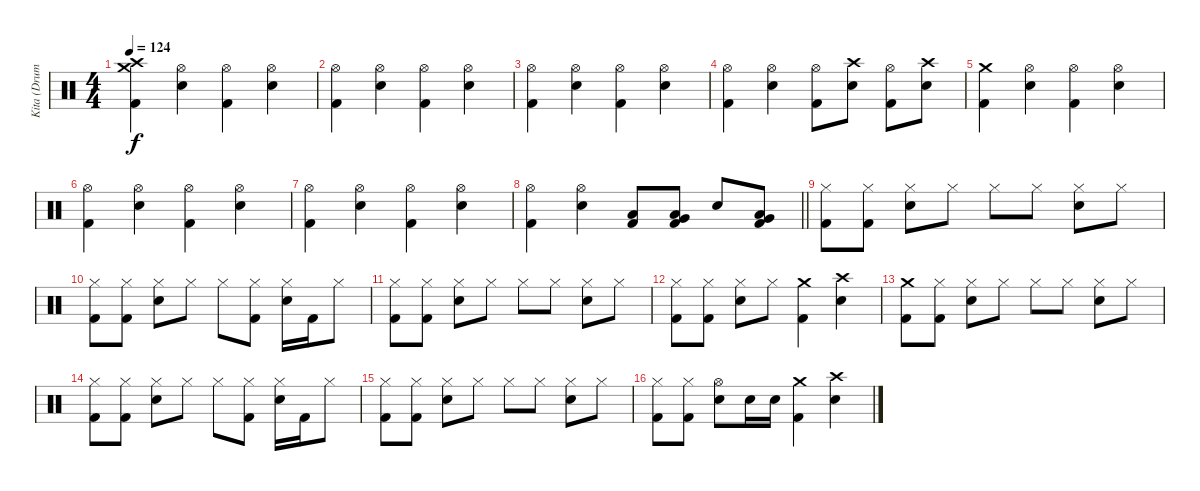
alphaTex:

\track ("Kita (Drums)" "Kita (Drum") {instrument percussion}
\staff {score}
\articulation defaults
\ts (4 4)
\tempo 124
\clef neutral
\ks c
("Crash medium (hit)" "Crash high (hit)" "Kick (hit) 2").4{dy f} ("Hi-Hat (open)" "Electric Snare (hit)").4 ("Hi-Hat (open)" "Kick (hit) 2").4 ("Hi-Hat (open)" "Electric Snare (hit)").4 |
("Hi-Hat (open)" "Kick (hit) 2").4 ("Hi-Hat (open)" "Electric Snare (hit)").4 ("Hi-Hat (open)" "Kick (hit) 2").4 ("Hi-Hat (open)" "Electric Snare (hit)").4 |
("Hi-Hat (open)" "Kick (hit) 2").4 ("Hi-Hat (open)" "Electric Snare (hit)").4 ("Hi-Hat (open)" "Kick (hit) 2").4 ("Hi-Hat (open)" "Electric Snare (hit)").4 |
("Hi-Hat (open)" "Kick (hit) 2").4 ("Hi-Hat (open)" "Electric Snare (hit)").4 ("Hi-Hat (open)" "Kick (hit) 2").8 ("Crash high (hit)" "Electric Snare (hit)").8 ("Hi-Hat (open)" "Kick (hit) 2").8 ("Crash high (hit)" "Electric Snare (hit)").8 |
("Crash medium (hit)" "Kick (hit) 2").4 ("Hi-Hat (open)" "Electric Snare (hit)").4 ("Hi-Hat (open)" "Kick (hit) 2").4 ("Hi-Hat (open)" "Electric Snare (hit)").4 |
("Hi-Hat (open)" "Kick (hit) 2").4 ("Hi-Hat (open)" "Electric Snare (hit)").4 ("Hi-Hat (open)" "Kick (hit) 2").4 ("Hi-Hat (open)" "Electric Snare (hit)").4 |
("Hi-Hat (open)" "Kick (hit) 2").4 ("Hi-Hat (open)" "Electric Snare (hit)").4 ("Hi-Hat (open)" "Kick (hit) 2").4 ("Hi-Hat (open)" "Electric Snare (hit)").4 |
\barLineRight lightlight
("Hi-Hat (open)" "Kick (hit) 2").4 ("Hi-Hat (open)" "Electric Snare (hit)").4 ("Low Floor Tom (hit)" "Kick (hit) 2").8 ("Low Floor Tom (hit)" "Very Low Tom (hit)" "Kick (hit) 2").8 "Electric Snare (hit)".8 ("Low Floor Tom (hit)" "Very Low Tom (hit)" "Kick (hit) 2").8 |
("Hi-Hat (closed)" "Kick (hit) 2").8 ("Hi-Hat (closed)" "Kick (hit) 2").8 ("Hi-Hat (closed)" "Electric Snare (hit)").8 "Hi-Hat (closed)".8 "Hi-Hat (closed)".8 "Hi-Hat (closed)".8 ("Hi-Hat (closed)" "Electric Snare (hit)").8 "Hi-Hat (closed)".8 |
("Hi-Hat (closed)" "Kick (hit) 2").8 ("Hi-Hat (closed)" "Kick (hit) 2").8 ("Hi-Hat (closed)" "Electric Snare (hit)").8 "Hi-Hat (closed)".8 "Hi-Hat (closed)".8 ("Hi-Hat (closed)" "Kick (hit) 2").8 ("Hi-Hat (closed)" "Electric Snare (hit)").16 "Kick (hit) 2".16 "Hi-Hat (closed)".8 |
("Hi-Hat (closed)" "Kick (hit) 2").8 ("Hi-Hat (closed)" "Kick (hit) 2").8 ("Hi-Hat (closed)" "Electric Snare (hit)").8 "Hi-Hat (closed)".8 "Hi-Hat (closed)".8 "Hi-Hat (closed)".8 ("Hi-Hat (closed)" "Electric Snare (hit)").8 "Hi-Hat (closed)".8 |
("Hi-Hat (closed)" "Kick (hit) 2").8 ("Hi-Hat (closed)" "Kick (hit) 2").8 ("Hi-Hat (closed)" "Electric Snare (hit)").8 "Hi-Hat (closed)".8 ("Crash medium (hit)" "Kick (hit) 2").4 ("Crash high (hit)" "Electric Snare (hit)").4 |
("Crash medium (hit)" "Kick (hit) 2").8 ("Hi-Hat (closed)" "Kick (hit) 2").8 ("Hi-Hat (closed)" "Electric Snare (hit)").8 "Hi-Hat (closed)".8 "Hi-Hat (closed)".8 "Hi-Hat (closed)".8 ("Hi-Hat (closed)" "Electric Snare (hit)").8 "Hi-Hat (closed)".8 |
("Hi-Hat (closed)" "Kick (hit) 2").8 ("Hi-Hat (closed)" "Kick (hit) 2").8 ("Hi-Hat (closed)" "Electric Snare (hit)").8 "Hi-Hat (closed)".8 "Hi-Hat (closed)".8 ("Hi-Hat (closed)" "Kick (hit) 2").8 ("Hi-Hat (closed)" "Electric Snare (hit)").16 "Kick (hit) 2".16 "Hi-Hat (closed)".8 |
("Hi-Hat (closed)" "Kick (hit) 2").8 ("Hi-Hat (closed)" "Kick (hit) 2").8 ("Hi-Hat (closed)" "Electric Snare (hit)").8 "Hi-Hat (closed)".8 "Hi-Hat (closed)".8 "Hi-Hat (closed)".8 ("Hi-Hat (closed)" "Electric Snare (hit)").8 "Hi-Hat (closed)".8 |
("Hi-Hat (closed)" "Kick (hit) 2").8 ("Hi-Hat (closed)" "Kick (hit) 2").8 ("Hi-Hat (open)" "Electric Snare (hit)").8 "Electric Snare (hit)".16 "Electric Snare (hit)".16 ("Crash medium (hit)" "Kick (hit) 2").4 ("Crash high (hit)" "Electric Snare (hit)").4
